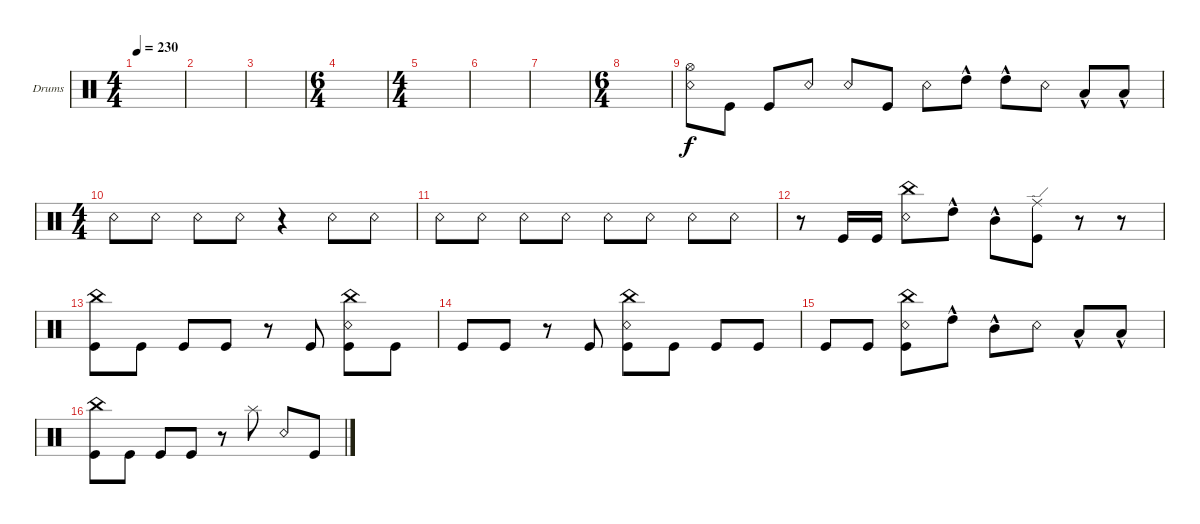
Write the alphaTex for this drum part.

\bracketExtendMode groupsimilarinstruments
\firstSystemTrackNameOrientation horizontal
\otherSystemsTrackNameOrientation horizontal
\track ("Drumkit" "Drums") {mute instrument percussion}
\staff {score}
\articulation defaults
\ts (4 4)
\tempo 230
\clef neutral
\ks c
|
|
|
\ts (6 4)
|
\ts (4 4)
|
|
|
\ts (6 4)
|
("Snare (rim shot)" "Hi-Hat (open)").8 "Kick (hit)".8 "Kick (hit)".8 "Snare (rim shot)".8 "Snare (rim shot)".8 "Kick (hit)".8 "Snare (rim shot)".8 "High Tom (hit)"{hac}.8 "High Tom (hit)"{hac}.8 "Snare (rim shot)".8 "Low Tom (hit)"{hac}.8 "Low Tom (hit)"{hac}.8 |
\ts (4 4)
"Snare (rim shot)".8 "Snare (rim shot)".8 "Snare (rim shot)".8 "Snare (rim shot)".8 r.4 "Snare (rim shot)".8 "Snare (rim shot)".8 |
"Snare (rim shot)".8 "Snare (rim shot)".8 "Snare (rim shot)".8 "Snare (rim shot)".8 "Snare (rim shot)".8 "Snare (rim shot)".8 "Snare (rim shot)".8 "Snare (rim shot)".8 |
r.8 "Kick (hit)".16 "Kick (hit)".16 ("Snare (rim shot)" "China (hit)").8 "High Tom (hit)"{hac}.8 "Mid Tom (hit)"{hac}.8 ("Kick (hit)" "Ride (edge)").8 r.8 r.8 |
("Kick (hit)" "China (hit)").8 "Kick (hit)".8 "Kick (hit)".8 "Kick (hit)".8 r.8 "Kick (hit)".8 ("Kick (hit)" "Snare (rim shot)" "China (hit)").8 "Kick (hit)".8 |
"Kick (hit)".8 "Kick (hit)".8 r.8 "Kick (hit)".8 ("Kick (hit)" "China (hit)" "Snare (rim shot)").8 "Kick (hit)".8 "Kick (hit)".8 "Kick (hit)".8 |
"Kick (hit)".8 "Kick (hit)".8 ("Kick (hit)" "Snare (rim shot)" "China (hit)").8 "High Tom (hit)"{hac}.8 "Mid Tom (hit)"{hac}.8 "Snare (rim shot)".8 "Low Tom (hit)"{hac}.8 "Low Tom (hit)"{hac}.8 |
("Kick (hit)" "China (hit)").8 "Kick (hit)".8 "Kick (hit)".8 "Kick (hit)".8 r.8 "Splash (hit)".8 "Snare (rim shot)".8 "Kick (hit)".8
